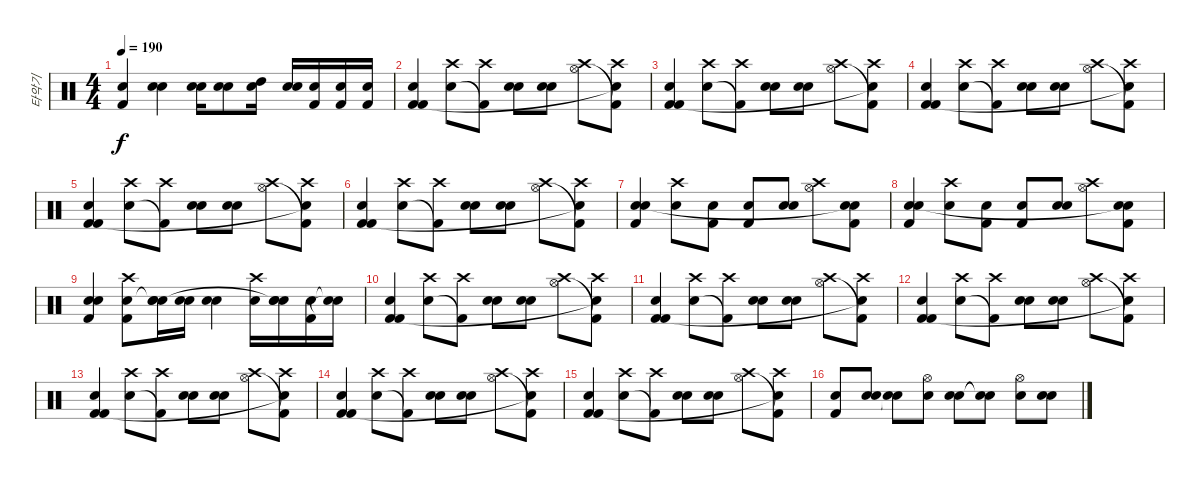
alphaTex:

\track ("타악기" "타악기") {instrument percussion}
\staff {score}
\articulation defaults
\ts (4 4)
\tempo 190
\clef neutral
\ks c
("Kick (hit) 2" "Snare (hit) 2").4{dy f} ("Electric Snare (hit)" "Electric Snare (hit)").4 ("Electric Snare (hit)" "Electric Snare (hit)").16 ("Electric Snare (hit)" "Electric Snare (hit)").8 ("High Tom (hit)" "Electric Snare (hit)").16 ("Snare (hit) 2" "Electric Snare (hit)").16 ("Kick (hit) 2" "Electric Snare (hit)").16 ("Kick (hit) 2" "Electric Snare (hit)").16 ("Kick (hit) 2" "Electric Snare (hit)").16 |
("Kick (hit) 2" "Snare (hit) 2" "Kick (hit) 2").4{volume 10} ("Crash high (hit)" "Snare (hit) 2").8 ("Crash high (hit)" "Kick (hit) 2"{t}).8 ("Snare (hit) 2" "Electric Snare (hit)").8 ("Snare (hit) 2" "Snare (hit) 2").8 ("Crash high (hit)" "Hi-Hat (open)").8 ("Crash high (hit)" "Kick (hit) 2"{t} "Snare (hit)"{t}).8 |
("Kick (hit) 2" "Snare (hit) 2" "Kick (hit) 2").4 ("Crash high (hit)" "Snare (hit) 2").8 ("Crash high (hit)" "Kick (hit) 2"{t}).8 ("Snare (hit) 2" "Electric Snare (hit)").8 ("Snare (hit) 2" "Snare (hit) 2").8 ("Crash high (hit)" "Hi-Hat (open)").8 ("Crash high (hit)" "Kick (hit) 2"{t} "Snare (hit)"{t}).8 |
("Kick (hit) 2" "Snare (hit) 2" "Kick (hit) 2").4 ("Crash high (hit)" "Snare (hit) 2").8 ("Crash high (hit)" "Kick (hit) 2"{t}).8 ("Snare (hit) 2" "Electric Snare (hit)").8 ("Snare (hit) 2" "Snare (hit) 2").8 ("Crash high (hit)" "Hi-Hat (open)").8 ("Crash high (hit)" "Kick (hit) 2"{t} "Snare (hit)"{t}).8 |
("Kick (hit) 2" "Snare (hit) 2" "Kick (hit) 2").4 ("Crash high (hit)" "Snare (hit) 2").8 ("Crash high (hit)" "Kick (hit) 2"{t}).8 ("Snare (hit) 2" "Electric Snare (hit)").8 ("Snare (hit) 2" "Snare (hit) 2").8 ("Crash high (hit)" "Hi-Hat (open)").8 ("Crash high (hit)" "Kick (hit) 2"{t} "Snare (hit)"{t}).8 |
("Kick (hit) 2" "Snare (hit) 2" "Kick (hit) 2").4 ("Crash high (hit)" "Snare (hit) 2").8 ("Crash high (hit)" "Kick (hit) 2"{t}).8 ("Snare (hit) 2" "Electric Snare (hit)").8 ("Snare (hit) 2" "Snare (hit) 2").8 ("Crash high (hit)" "Hi-Hat (open)").8 ("Crash high (hit)" "Kick (hit) 2"{t} "Snare (hit)"{t}).8 |
("Kick (hit) 2" "Snare (hit) 2" "Snare (hit) 2").4 ("Crash high (hit)" "Snare (hit) 2").8 ("Snare (hit) 2" "Kick (hit) 2").8 ("Snare (hit) 2" "Kick (hit) 2").8 ("Snare (hit) 2" "Snare (hit) 2").8 ("Crash high (hit)" "Hi-Hat (open)").8 ("Snare (hit) 2" "Kick (hit) 2" "Snare (hit)"{t}).8 |
("Kick (hit) 2" "Snare (hit) 2" "Snare (hit) 2").4 ("Crash high (hit)" "Snare (hit) 2").8 ("Snare (hit) 2" "Kick (hit) 2").8 ("Snare (hit) 2" "Kick (hit) 2").8 ("Snare (hit) 2" "Snare (hit) 2").8 ("Crash high (hit)" "Hi-Hat (open)").8 ("Snare (hit) 2" "Kick (hit) 2" "Snare (hit)"{t}).8 |
("Kick (hit) 2" "Snare (hit) 2" "Snare (hit) 2").4 ("Crash high (hit)" "Kick (hit) 2" "Snare (hit) 2").8 ("Snare (hit) 2" "Electric Snare (hit)" "Snare (hit)"{t}).16 ("Snare (hit) 2" "Electric Snare (hit)").16 ("Snare (hit) 2" "Electric Snare (hit)").4 ("Crash high (hit)" "Electric Snare (hit)").16 ("Snare (hit) 2" "Electric Snare (hit)" "Snare (hit)"{t}).16 ("Kick (hit) 2" "Electric Snare (hit)").16 ("Snare (hit)"{t} "Snare (hit)"{t}).16 |
("Kick (hit) 2" "Snare (hit) 2" "Kick (hit) 2").4 ("Crash high (hit)" "Snare (hit) 2").8 ("Crash high (hit)" "Kick (hit) 2"{t}).8 ("Snare (hit) 2" "Electric Snare (hit)").8 ("Snare (hit) 2" "Snare (hit) 2").8 ("Crash high (hit)" "Hi-Hat (open)").8 ("Crash high (hit)" "Kick (hit) 2"{t} "Snare (hit)"{t}).8 |
("Kick (hit) 2" "Snare (hit) 2" "Kick (hit) 2").4 ("Crash high (hit)" "Snare (hit) 2").8 ("Crash high (hit)" "Kick (hit) 2"{t}).8 ("Snare (hit) 2" "Electric Snare (hit)").8 ("Snare (hit) 2" "Snare (hit) 2").8 ("Crash high (hit)" "Hi-Hat (open)").8 ("Crash high (hit)" "Kick (hit) 2"{t} "Snare (hit)"{t}).8 |
("Kick (hit) 2" "Snare (hit) 2" "Kick (hit) 2").4 ("Crash high (hit)" "Snare (hit) 2").8 ("Crash high (hit)" "Kick (hit) 2"{t}).8 ("Snare (hit) 2" "Electric Snare (hit)").8 ("Snare (hit) 2" "Snare (hit) 2").8 ("Crash high (hit)" "Hi-Hat (open)").8 ("Crash high (hit)" "Kick (hit) 2"{t} "Snare (hit)"{t}).8 |
("Kick (hit) 2" "Snare (hit) 2" "Kick (hit) 2").4 ("Crash high (hit)" "Snare (hit) 2").8 ("Crash high (hit)" "Kick (hit) 2"{t}).8 ("Snare (hit) 2" "Electric Snare (hit)").8 ("Snare (hit) 2" "Snare (hit) 2").8 ("Crash high (hit)" "Hi-Hat (open)").8 ("Crash high (hit)" "Kick (hit) 2"{t} "Snare (hit)"{t}).8 |
("Kick (hit) 2" "Snare (hit) 2" "Kick (hit) 2").4 ("Crash high (hit)" "Snare (hit) 2").8 ("Crash high (hit)" "Kick (hit) 2"{t}).8 ("Snare (hit) 2" "Electric Snare (hit)").8 ("Snare (hit) 2" "Snare (hit) 2").8 ("Crash high (hit)" "Hi-Hat (open)").8 ("Crash high (hit)" "Kick (hit) 2"{t} "Snare (hit)"{t}).8 |
("Kick (hit) 2" "Snare (hit) 2" "Kick (hit) 2").4 ("Crash high (hit)" "Snare (hit) 2").8 ("Crash high (hit)" "Kick (hit) 2"{t}).8 ("Snare (hit) 2" "Electric Snare (hit)").8 ("Snare (hit) 2" "Snare (hit) 2").8 ("Crash high (hit)" "Hi-Hat (open)").8 ("Crash high (hit)" "Kick (hit) 2"{t} "Snare (hit)"{t}).8 |
("Electric Snare (hit)" "Kick (hit) 2").8 ("Snare (hit) 2" "Electric Snare (hit)").8 ("Snare (hit)"{t} "Snare (hit)"{t}).8 ("Electric Snare (hit)" "Hi-Hat (open)").8 ("Snare (hit) 2" "Electric Snare (hit)").8 ("Snare (hit)"{t} "Snare (hit)"{t}).8 ("Electric Snare (hit)" "Hi-Hat (open)").8 ("Snare (hit) 2" "Electric Snare (hit)").8
